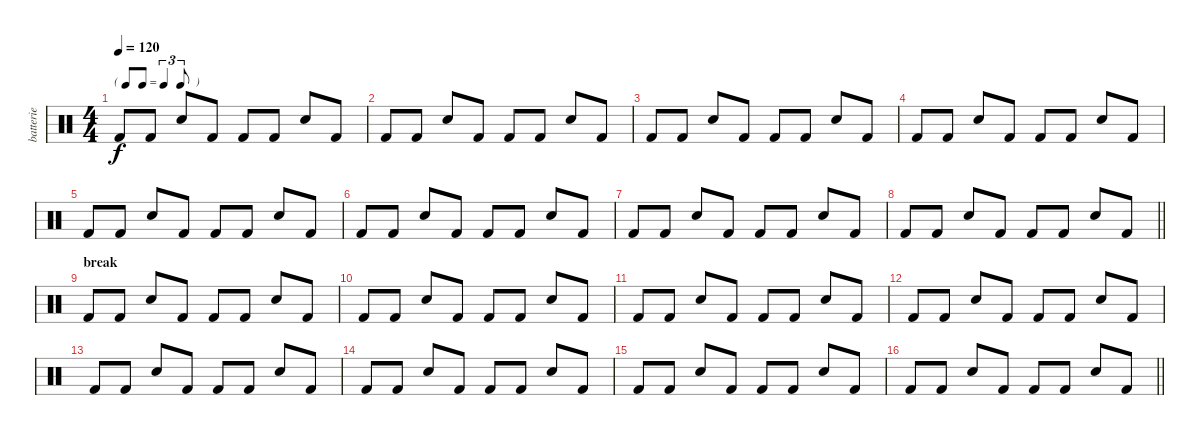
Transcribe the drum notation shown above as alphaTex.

\track ("batterie" "batterie") {instrument percussion}
\staff {score}
\articulation defaults
\ts (4 4)
\tf triplet8th
\tempo 120
\clef neutral
\ks c "Kick (hit) 2".8{dy f} "Kick (hit) 2".8 "Snare (hit) 2".8 "Kick (hit) 2".8 "Kick (hit) 2".8 "Kick (hit) 2".8 "Snare (hit) 2".8 "Kick (hit) 2".8
|
"Kick (hit) 2".8 "Kick (hit) 2".8 "Snare (hit) 2".8 "Kick (hit) 2".8 "Kick (hit) 2".8 "Kick (hit) 2".8 "Snare (hit) 2".8 "Kick (hit) 2".8 |
"Kick (hit) 2".8 "Kick (hit) 2".8 "Snare (hit) 2".8 "Kick (hit) 2".8 "Kick (hit) 2".8 "Kick (hit) 2".8 "Snare (hit) 2".8 "Kick (hit) 2".8 |
"Kick (hit) 2".8 "Kick (hit) 2".8 "Snare (hit) 2".8 "Kick (hit) 2".8 "Kick (hit) 2".8 "Kick (hit) 2".8 "Snare (hit) 2".8 "Kick (hit) 2".8 |
"Kick (hit) 2".8 "Kick (hit) 2".8 "Snare (hit) 2".8 "Kick (hit) 2".8 "Kick (hit) 2".8 "Kick (hit) 2".8 "Snare (hit) 2".8 "Kick (hit) 2".8 |
"Kick (hit) 2".8 "Kick (hit) 2".8 "Snare (hit) 2".8 "Kick (hit) 2".8 "Kick (hit) 2".8 "Kick (hit) 2".8 "Snare (hit) 2".8 "Kick (hit) 2".8 |
"Kick (hit) 2".8 "Kick (hit) 2".8 "Snare (hit) 2".8 "Kick (hit) 2".8 "Kick (hit) 2".8 "Kick (hit) 2".8 "Snare (hit) 2".8 "Kick (hit) 2".8 |
\barLineRight lightlight "Kick (hit) 2".8 "Kick (hit) 2".8 "Snare (hit) 2".8 "Kick (hit) 2".8 "Kick (hit) 2".8 "Kick (hit) 2".8 "Snare (hit) 2".8 "Kick (hit) 2".8
|
\section ("" "break")
"Kick (hit) 2".8 "Kick (hit) 2".8 "Snare (hit) 2".8 "Kick (hit) 2".8 "Kick (hit) 2".8 "Kick (hit) 2".8 "Snare (hit) 2".8 "Kick (hit) 2".8 |
"Kick (hit) 2".8 "Kick (hit) 2".8 "Snare (hit) 2".8 "Kick (hit) 2".8 "Kick (hit) 2".8 "Kick (hit) 2".8 "Snare (hit) 2".8 "Kick (hit) 2".8 |
"Kick (hit) 2".8 "Kick (hit) 2".8 "Snare (hit) 2".8 "Kick (hit) 2".8 "Kick (hit) 2".8 "Kick (hit) 2".8 "Snare (hit) 2".8 "Kick (hit) 2".8 |
"Kick (hit) 2".8 "Kick (hit) 2".8 "Snare (hit) 2".8 "Kick (hit) 2".8 "Kick (hit) 2".8 "Kick (hit) 2".8 "Snare (hit) 2".8 "Kick (hit) 2".8 |
"Kick (hit) 2".8 "Kick (hit) 2".8 "Snare (hit) 2".8 "Kick (hit) 2".8 "Kick (hit) 2".8 "Kick (hit) 2".8 "Snare (hit) 2".8 "Kick (hit) 2".8 |
"Kick (hit) 2".8 "Kick (hit) 2".8 "Snare (hit) 2".8 "Kick (hit) 2".8 "Kick (hit) 2".8 "Kick (hit) 2".8 "Snare (hit) 2".8 "Kick (hit) 2".8 |
"Kick (hit) 2".8 "Kick (hit) 2".8 "Snare (hit) 2".8 "Kick (hit) 2".8 "Kick (hit) 2".8 "Kick (hit) 2".8 "Snare (hit) 2".8 "Kick (hit) 2".8 |
\barLineRight lightlight "Kick (hit) 2".8 "Kick (hit) 2".8 "Snare (hit) 2".8 "Kick (hit) 2".8 "Kick (hit) 2".8 "Kick (hit) 2".8 "Snare (hit) 2".8 "Kick (hit) 2".8
